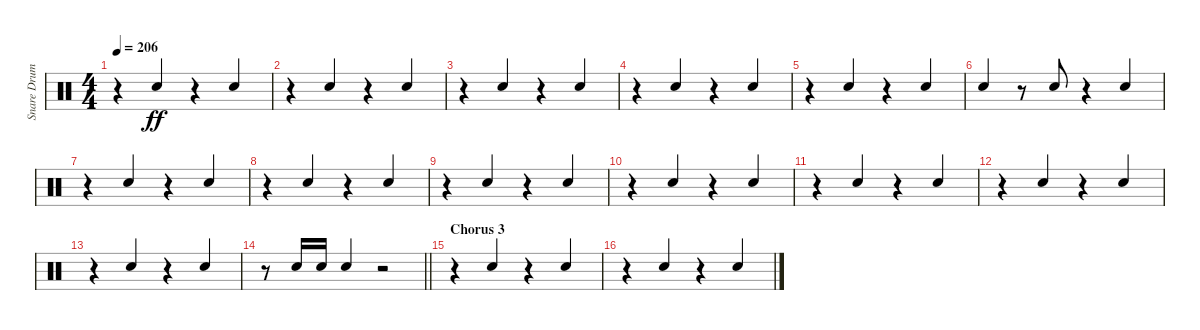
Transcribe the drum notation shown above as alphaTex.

\track ("Snare Drum" "Snare Drum") {instrument percussion}
\staff {score}
\articulation defaults
\ts (4 4)
\tempo 206
\clef neutral
\ks c
r.4{dy ff} "Electric Snare (hit)".4{beam Up} r.4 "Electric Snare (hit)".4{beam Up} |
r.4 "Electric Snare (hit)".4{beam Up} r.4 "Electric Snare (hit)".4{beam Up} |
r.4 "Electric Snare (hit)".4{beam Up} r.4 "Electric Snare (hit)".4{beam Up} |
r.4 "Electric Snare (hit)".4{beam Up} r.4 "Electric Snare (hit)".4{beam Up} |
r.4 "Electric Snare (hit)".4{beam Up} r.4 "Electric Snare (hit)".4{beam Up} |
"Electric Snare (hit)".4{beam Up} r.8 "Electric Snare (hit)".8{beam Up} r.4 "Electric Snare (hit)".4{beam Up} |
r.4 "Electric Snare (hit)".4{beam Up} r.4 "Electric Snare (hit)".4{beam Up} |
r.4 "Electric Snare (hit)".4{beam Up} r.4 "Electric Snare (hit)".4{beam Up} |
r.4 "Electric Snare (hit)".4{beam Up} r.4 "Electric Snare (hit)".4{beam Up} |
r.4 "Electric Snare (hit)".4{beam Up} r.4 "Electric Snare (hit)".4{beam Up} |
r.4 "Electric Snare (hit)".4{beam Up} r.4 "Electric Snare (hit)".4{beam Up} |
r.4 "Electric Snare (hit)".4{beam Up} r.4 "Electric Snare (hit)".4{beam Up} |
r.4 "Electric Snare (hit)".4{beam Up} r.4 "Electric Snare (hit)".4{beam Up} |
\barLineRight lightlight
r.8 "Electric Snare (hit)".16{beam Up} "Electric Snare (hit)".16{beam Up} "Electric Snare (hit)".4{beam Up} r.2 |
\section ("" "Chorus 3")
r.4 "Electric Snare (hit)".4{beam Up} r.4 "Electric Snare (hit)".4{beam Up} |
r.4 "Electric Snare (hit)".4{beam Up} r.4 "Electric Snare (hit)".4{beam Up}
